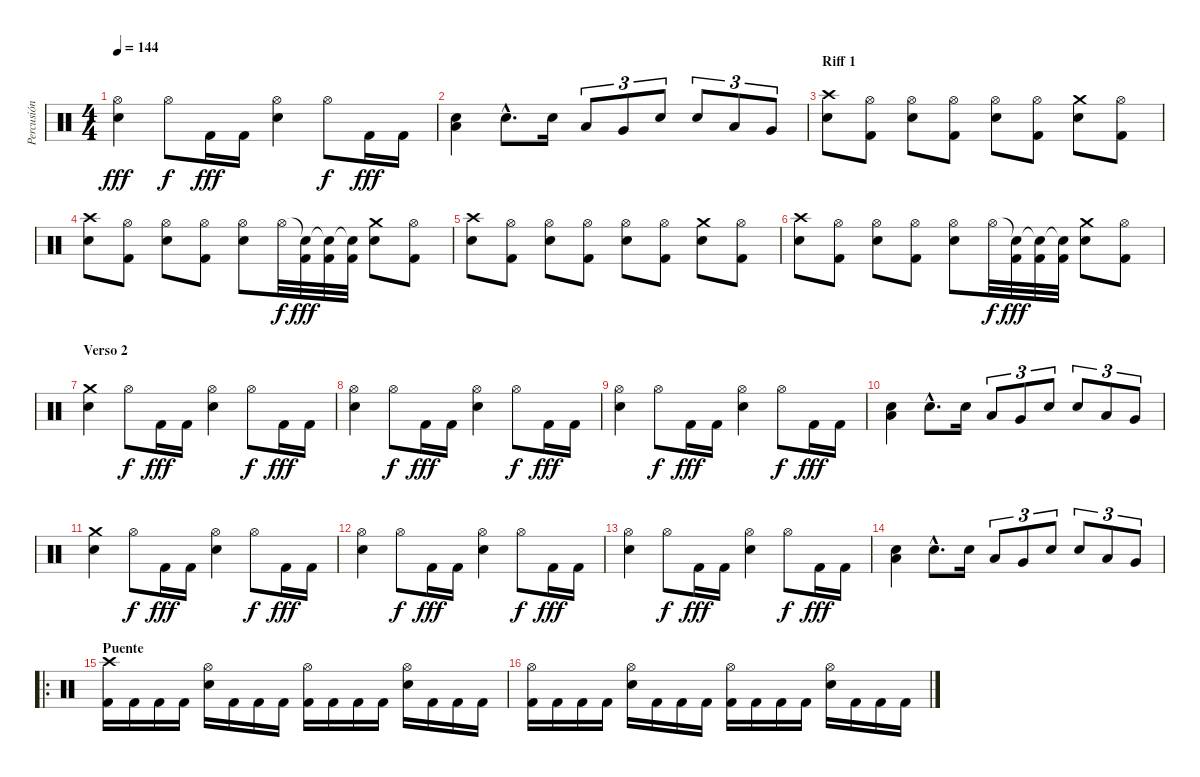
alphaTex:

\track ("Percusión" "Percusión") {instrument percussion}
\staff {score}
\articulation defaults
\ts (4 4)
\tempo 144
\clef neutral
\ks c
("Hi-Hat (open)" "Snare (hit) 2").4{dy fff} "Hi-Hat (open)".8{dy f} "Kick (hit) 2".16{dy fff} "Kick (hit) 2".16 ("Hi-Hat (open)" "Snare (hit) 2").4 "Hi-Hat (open)".8{dy f} "Kick (hit) 2".16{dy fff} "Kick (hit) 2".16 |
("Low Tom (hit)" "Snare (hit) 2").4 "Snare (hit) 2"{hac}.8{d} "Snare (hit) 2".16 "Low Tom (hit)".8{tu (3 2)} "Very Low Tom (hit)".8{tu (3 2)} "Snare (hit) 2".8{tu (3 2)} "Snare (hit) 2".8{tu (3 2)} "Low Tom (hit)".8{tu (3 2)} "Very Low Tom (hit)".8{tu (3 2)} |
\section ("" "Riff 1")
("Crash high (hit)" "Snare (hit) 2").8 ("Hi-Hat (open)" "Kick (hit) 2").8 ("Hi-Hat (open)" "Snare (hit) 2").8 ("Hi-Hat (open)" "Kick (hit) 2").8 ("Hi-Hat (open)" "Snare (hit) 2").8 ("Hi-Hat (open)" "Kick (hit) 2").8 ("Crash medium (hit)" "Snare (hit) 2").8 ("Hi-Hat (open)" "Kick (hit) 2").8 |
("Crash high (hit)" "Snare (hit) 2").8 ("Hi-Hat (open)" "Kick (hit) 2").8 ("Hi-Hat (open)" "Snare (hit) 2").8 ("Hi-Hat (open)" "Kick (hit) 2").8 ("Hi-Hat (open)" "Snare (hit) 2").8 "Hi-Hat (open)".32{dy f} ("Snare (hit)"{t} "Kick (hit) 2").32{dy fff} ("Snare (hit)"{t} "Kick (hit) 2").32 ("Snare (hit)"{t} "Kick (hit) 2").32 ("Crash medium (hit)" "Snare (hit) 2").8 ("Hi-Hat (open)" "Kick (hit) 2").8 |
("Crash high (hit)" "Snare (hit) 2").8 ("Hi-Hat (open)" "Kick (hit) 2").8 ("Hi-Hat (open)" "Snare (hit) 2").8 ("Hi-Hat (open)" "Kick (hit) 2").8 ("Hi-Hat (open)" "Snare (hit) 2").8 ("Hi-Hat (open)" "Kick (hit) 2").8 ("Crash medium (hit)" "Snare (hit) 2").8 ("Hi-Hat (open)" "Kick (hit) 2").8 |
("Crash high (hit)" "Snare (hit) 2").8 ("Hi-Hat (open)" "Kick (hit) 2").8 ("Hi-Hat (open)" "Snare (hit) 2").8 ("Hi-Hat (open)" "Kick (hit) 2").8 ("Hi-Hat (open)" "Snare (hit) 2").8 "Hi-Hat (open)".32{dy f} ("Snare (hit)"{t} "Kick (hit) 2").32{dy fff} ("Snare (hit)"{t} "Kick (hit) 2").32 ("Snare (hit)"{t} "Kick (hit) 2").32 ("Crash medium (hit)" "Snare (hit) 2").8 ("Hi-Hat (open)" "Kick (hit) 2").8 |
\section ("" "Verso 2")
("Crash medium (hit)" "Snare (hit) 2").4 "Hi-Hat (open)".8{dy f} "Kick (hit) 2".16{dy fff} "Kick (hit) 2".16 ("Hi-Hat (open)" "Snare (hit) 2").4 "Hi-Hat (open)".8{dy f} "Kick (hit) 2".16{dy fff} "Kick (hit) 2".16 |
("Hi-Hat (open)" "Snare (hit) 2").4 "Hi-Hat (open)".8{dy f} "Kick (hit) 2".16{dy fff} "Kick (hit) 2".16 ("Hi-Hat (open)" "Snare (hit) 2").4 "Hi-Hat (open)".8{dy f} "Kick (hit) 2".16{dy fff} "Kick (hit) 2".16 |
("Hi-Hat (open)" "Snare (hit) 2").4 "Hi-Hat (open)".8{dy f} "Kick (hit) 2".16{dy fff} "Kick (hit) 2".16 ("Hi-Hat (open)" "Snare (hit) 2").4 "Hi-Hat (open)".8{dy f} "Kick (hit) 2".16{dy fff} "Kick (hit) 2".16 |
("Low Tom (hit)" "Snare (hit) 2").4 "Snare (hit) 2"{hac}.8{d} "Snare (hit) 2".16 "Low Tom (hit)".8{tu (3 2)} "Very Low Tom (hit)".8{tu (3 2)} "Snare (hit) 2".8{tu (3 2)} "Snare (hit) 2".8{tu (3 2)} "Low Tom (hit)".8{tu (3 2)} "Very Low Tom (hit)".8{tu (3 2)} |
("Crash medium (hit)" "Snare (hit) 2").4 "Hi-Hat (open)".8{dy f} "Kick (hit) 2".16{dy fff} "Kick (hit) 2".16 ("Hi-Hat (open)" "Snare (hit) 2").4 "Hi-Hat (open)".8{dy f} "Kick (hit) 2".16{dy fff} "Kick (hit) 2".16 |
("Hi-Hat (open)" "Snare (hit) 2").4 "Hi-Hat (open)".8{dy f} "Kick (hit) 2".16{dy fff} "Kick (hit) 2".16 ("Hi-Hat (open)" "Snare (hit) 2").4 "Hi-Hat (open)".8{dy f} "Kick (hit) 2".16{dy fff} "Kick (hit) 2".16 |
("Hi-Hat (open)" "Snare (hit) 2").4 "Hi-Hat (open)".8{dy f} "Kick (hit) 2".16{dy fff} "Kick (hit) 2".16 ("Hi-Hat (open)" "Snare (hit) 2").4 "Hi-Hat (open)".8{dy f} "Kick (hit) 2".16{dy fff} "Kick (hit) 2".16 |
("Low Tom (hit)" "Snare (hit) 2").4 "Snare (hit) 2"{hac}.8{d} "Snare (hit) 2".16 "Low Tom (hit)".8{tu (3 2)} "Very Low Tom (hit)".8{tu (3 2)} "Snare (hit) 2".8{tu (3 2)} "Snare (hit) 2".8{tu (3 2)} "Low Tom (hit)".8{tu (3 2)} "Very Low Tom (hit)".8{tu (3 2)} |
\ro
\section ("" "Puente")
("Crash high (hit)" "Kick (hit) 2").16 "Kick (hit) 2".16 "Kick (hit) 2".16 "Kick (hit) 2".16 ("Hi-Hat (open)" "Electric Snare (hit)").16 "Kick (hit) 2".16 "Kick (hit) 2".16 "Kick (hit) 2".16 ("Hi-Hat (open)" "Kick (hit) 2").16 "Kick (hit) 2".16 "Kick (hit) 2".16 "Kick (hit) 2".16 ("Hi-Hat (open)" "Electric Snare (hit)").16 "Kick (hit) 2".16 "Kick (hit) 2".16 "Kick (hit) 2".16 |
("Hi-Hat (open)" "Kick (hit) 2").16 "Kick (hit) 2".16 "Kick (hit) 2".16 "Kick (hit) 2".16 ("Hi-Hat (open)" "Electric Snare (hit)").16 "Kick (hit) 2".16 "Kick (hit) 2".16 "Kick (hit) 2".16 ("Hi-Hat (open)" "Kick (hit) 2").16 "Kick (hit) 2".16 "Kick (hit) 2".16 "Kick (hit) 2".16 ("Hi-Hat (open)" "Electric Snare (hit)").16 "Kick (hit) 2".16 "Kick (hit) 2".16 "Kick (hit) 2".16
